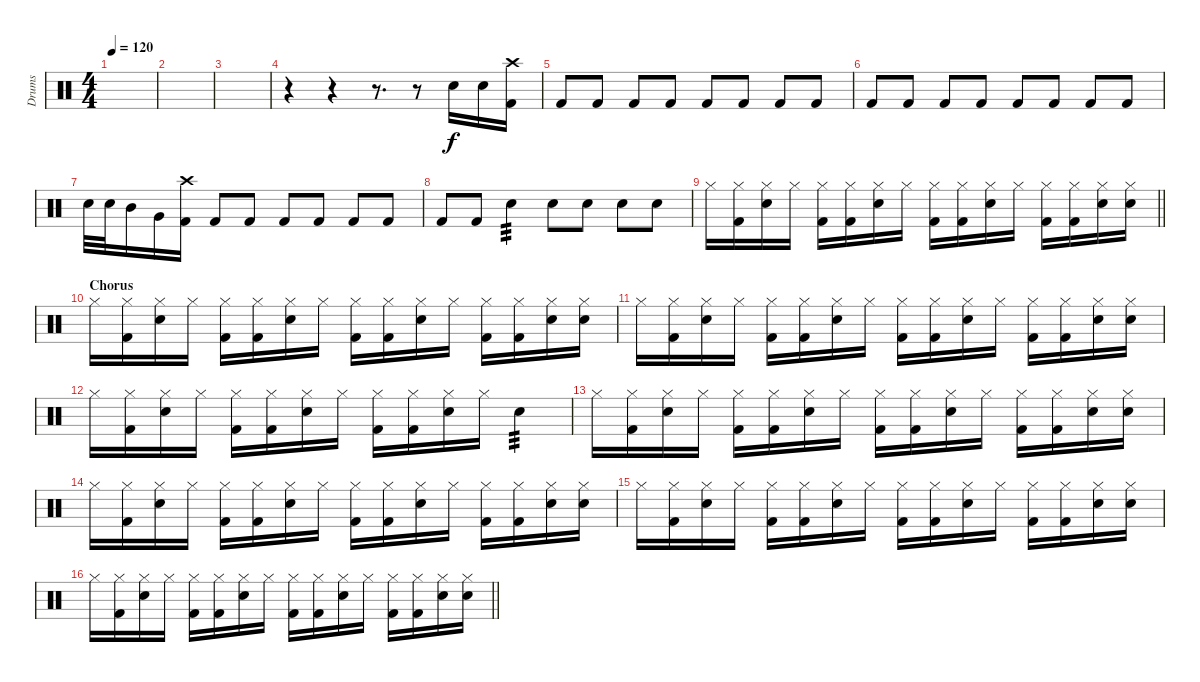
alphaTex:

\track ("Drums" "Drums") {instrument percussion}
\staff {score}
\articulation defaults
\ts (4 4)
\tempo 120
\clef neutral
\ks c
|
|
|
r.4 r.4 r.8{d} r.8 "Electric Snare (hit)".16 "Electric Snare (hit)".16 ("Crash high (hit)" "Kick (hit) 2").16 |
"Kick (hit) 2".8 "Kick (hit) 2".8 "Kick (hit) 2".8 "Kick (hit) 2".8 "Kick (hit) 2".8 "Kick (hit) 2".8 "Kick (hit) 2".8 "Kick (hit) 2".8 |
"Kick (hit) 2".8 "Kick (hit) 2".8 "Kick (hit) 2".8 "Kick (hit) 2".8 "Kick (hit) 2".8 "Kick (hit) 2".8 "Kick (hit) 2".8 "Kick (hit) 2".8 |
"Electric Snare (hit)".32 "Electric Snare (hit)".32 "Mid Tom (hit)".16 "Very Low Tom (hit)".16 ("Crash high (hit)" "Kick (hit) 2").16 "Kick (hit) 2".8 "Kick (hit) 2".8 "Kick (hit) 2".8 "Kick (hit) 2".8 "Kick (hit) 2".8 "Kick (hit) 2".8 |
"Kick (hit) 2".8 "Kick (hit) 2".8 "Electric Snare (hit)".4{tp 3} "Electric Snare (hit)".8 "Electric Snare (hit)".8 "Electric Snare (hit)".8 "Electric Snare (hit)".8 |
\barLineRight lightlight "Hi-Hat (closed)".16
("Hi-Hat (closed)" "Kick (hit) 2").16 ("Hi-Hat (closed)" "Electric Snare (hit)").16 "Hi-Hat (closed)".16 ("Hi-Hat (closed)" "Kick (hit) 2").16 ("Hi-Hat (closed)" "Kick (hit) 2").16 ("Hi-Hat (closed)" "Electric Snare (hit)").16 "Hi-Hat (closed)".16 ("Hi-Hat (closed)" "Kick (hit) 2").16 ("Hi-Hat (closed)" "Kick (hit) 2").16 ("Hi-Hat (closed)" "Electric Snare (hit)").16 "Hi-Hat (closed)".16 ("Hi-Hat (closed)" "Kick (hit) 2").16 ("Hi-Hat (closed)" "Kick (hit) 2").16 ("Hi-Hat (closed)" "Electric Snare (hit)").16 ("Hi-Hat (closed)" "Electric Snare (hit)").16 |
\section ("" "Chorus")
"Hi-Hat (closed)".16 ("Hi-Hat (closed)" "Kick (hit) 2").16 ("Hi-Hat (closed)" "Electric Snare (hit)").16 "Hi-Hat (closed)".16 ("Hi-Hat (closed)" "Kick (hit) 2").16 ("Hi-Hat (closed)" "Kick (hit) 2").16 ("Hi-Hat (closed)" "Electric Snare (hit)").16 "Hi-Hat (closed)".16 ("Hi-Hat (closed)" "Kick (hit) 2").16 ("Hi-Hat (closed)" "Kick (hit) 2").16 ("Hi-Hat (closed)" "Electric Snare (hit)").16 "Hi-Hat (closed)".16 ("Hi-Hat (closed)" "Kick (hit) 2").16 ("Hi-Hat (closed)" "Kick (hit) 2").16 ("Hi-Hat (closed)" "Electric Snare (hit)").16 ("Hi-Hat (closed)" "Electric Snare (hit)").16 |
"Hi-Hat (closed)".16 ("Hi-Hat (closed)" "Kick (hit) 2").16 ("Hi-Hat (closed)" "Electric Snare (hit)").16 "Hi-Hat (closed)".16 ("Hi-Hat (closed)" "Kick (hit) 2").16 ("Hi-Hat (closed)" "Kick (hit) 2").16 ("Hi-Hat (closed)" "Electric Snare (hit)").16 "Hi-Hat (closed)".16 ("Hi-Hat (closed)" "Kick (hit) 2").16 ("Hi-Hat (closed)" "Kick (hit) 2").16 ("Hi-Hat (closed)" "Electric Snare (hit)").16 "Hi-Hat (closed)".16 ("Hi-Hat (closed)" "Kick (hit) 2").16 ("Hi-Hat (closed)" "Kick (hit) 2").16 ("Hi-Hat (closed)" "Electric Snare (hit)").16 ("Hi-Hat (closed)" "Electric Snare (hit)").16 |
"Hi-Hat (closed)".16 ("Hi-Hat (closed)" "Kick (hit) 2").16 ("Hi-Hat (closed)" "Electric Snare (hit)").16 "Hi-Hat (closed)".16 ("Hi-Hat (closed)" "Kick (hit) 2").16 ("Hi-Hat (closed)" "Kick (hit) 2").16 ("Hi-Hat (closed)" "Electric Snare (hit)").16 "Hi-Hat (closed)".16 ("Hi-Hat (closed)" "Kick (hit) 2").16 ("Hi-Hat (closed)" "Kick (hit) 2").16 ("Hi-Hat (closed)" "Electric Snare (hit)").16 "Hi-Hat (closed)".16 "Electric Snare (hit)".4{tp 3} |
"Hi-Hat (closed)".16 ("Hi-Hat (closed)" "Kick (hit) 2").16 ("Hi-Hat (closed)" "Electric Snare (hit)").16 "Hi-Hat (closed)".16 ("Hi-Hat (closed)" "Kick (hit) 2").16 ("Hi-Hat (closed)" "Kick (hit) 2").16 ("Hi-Hat (closed)" "Electric Snare (hit)").16 "Hi-Hat (closed)".16 ("Hi-Hat (closed)" "Kick (hit) 2").16 ("Hi-Hat (closed)" "Kick (hit) 2").16 ("Hi-Hat (closed)" "Electric Snare (hit)").16 "Hi-Hat (closed)".16 ("Hi-Hat (closed)" "Kick (hit) 2").16 ("Hi-Hat (closed)" "Kick (hit) 2").16 ("Hi-Hat (closed)" "Electric Snare (hit)").16 ("Hi-Hat (closed)" "Electric Snare (hit)").16 |
"Hi-Hat (closed)".16 ("Hi-Hat (closed)" "Kick (hit) 2").16 ("Hi-Hat (closed)" "Electric Snare (hit)").16 "Hi-Hat (closed)".16 ("Hi-Hat (closed)" "Kick (hit) 2").16 ("Hi-Hat (closed)" "Kick (hit) 2").16 ("Hi-Hat (closed)" "Electric Snare (hit)").16 "Hi-Hat (closed)".16 ("Hi-Hat (closed)" "Kick (hit) 2").16 ("Hi-Hat (closed)" "Kick (hit) 2").16 ("Hi-Hat (closed)" "Electric Snare (hit)").16 "Hi-Hat (closed)".16 ("Hi-Hat (closed)" "Kick (hit) 2").16 ("Hi-Hat (closed)" "Kick (hit) 2").16 ("Hi-Hat (closed)" "Electric Snare (hit)").16 ("Hi-Hat (closed)" "Electric Snare (hit)").16 |
"Hi-Hat (closed)".16 ("Hi-Hat (closed)" "Kick (hit) 2").16 ("Hi-Hat (closed)" "Electric Snare (hit)").16 "Hi-Hat (closed)".16 ("Hi-Hat (closed)" "Kick (hit) 2").16 ("Hi-Hat (closed)" "Kick (hit) 2").16 ("Hi-Hat (closed)" "Electric Snare (hit)").16 "Hi-Hat (closed)".16 ("Hi-Hat (closed)" "Kick (hit) 2").16 ("Hi-Hat (closed)" "Kick (hit) 2").16 ("Hi-Hat (closed)" "Electric Snare (hit)").16 "Hi-Hat (closed)".16 ("Hi-Hat (closed)" "Kick (hit) 2").16 ("Hi-Hat (closed)" "Kick (hit) 2").16 ("Hi-Hat (closed)" "Electric Snare (hit)").16 ("Hi-Hat (closed)" "Electric Snare (hit)").16 |
\barLineRight lightlight "Hi-Hat (closed)".16
("Hi-Hat (closed)" "Kick (hit) 2").16 ("Hi-Hat (closed)" "Electric Snare (hit)").16 "Hi-Hat (closed)".16 ("Hi-Hat (closed)" "Kick (hit) 2").16 ("Hi-Hat (closed)" "Kick (hit) 2").16 ("Hi-Hat (closed)" "Electric Snare (hit)").16 "Hi-Hat (closed)".16 ("Hi-Hat (closed)" "Kick (hit) 2").16 ("Hi-Hat (closed)" "Kick (hit) 2").16 ("Hi-Hat (closed)" "Electric Snare (hit)").16 "Hi-Hat (closed)".16 ("Hi-Hat (closed)" "Kick (hit) 2").16 ("Hi-Hat (closed)" "Kick (hit) 2").16 ("Hi-Hat (closed)" "Electric Snare (hit)").16 ("Hi-Hat (closed)" "Electric Snare (hit)").16
